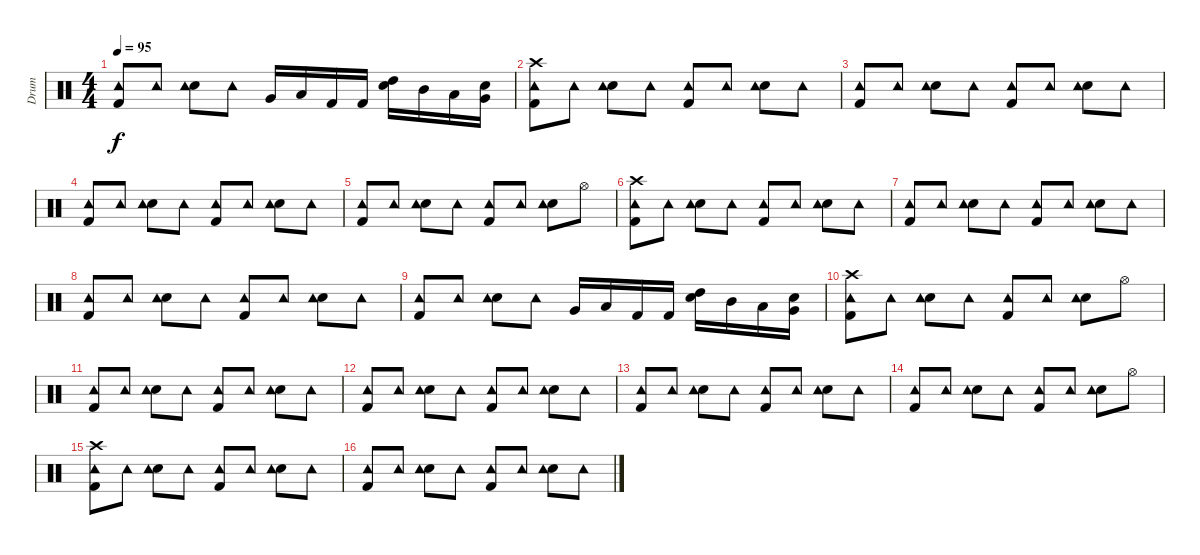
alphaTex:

\track ("Drum" "Drum") {instrument percussion}
\staff {score}
\articulation defaults
\ts (4 4)
\tempo 95
\clef neutral
\ks c
("Kick (hit) 2" "Tambourine (hit)").8{dy f} "Tambourine (hit)".8 ("Electric Snare (hit)" "Tambourine (hit)").8 "Tambourine (hit)".8 "Very Low Tom (hit)".16 "Low Floor Tom (hit)".16 "Kick (hit) 2".16 "Kick (hit) 2".16 ("High Tom (hit)" "Snare (hit) 2").16 "Mid Tom (hit)".16 "Low Tom (hit)".16 ("Very Low Tom (hit)" "Snare (hit) 2").16 |
("Kick (hit) 2" "Tambourine (hit)" "Crash high (hit)").8 "Tambourine (hit)".8 ("Electric Snare (hit)" "Tambourine (hit)").8 "Tambourine (hit)".8 ("Kick (hit) 2" "Tambourine (hit)").8 "Tambourine (hit)".8 ("Electric Snare (hit)" "Tambourine (hit)").8 "Tambourine (hit)".8 |
("Kick (hit) 2" "Tambourine (hit)").8 "Tambourine (hit)".8 ("Electric Snare (hit)" "Tambourine (hit)").8 "Tambourine (hit)".8 ("Kick (hit) 2" "Tambourine (hit)").8 "Tambourine (hit)".8 ("Electric Snare (hit)" "Tambourine (hit)").8 "Tambourine (hit)".8 |
("Kick (hit) 2" "Tambourine (hit)").8 "Tambourine (hit)".8 ("Electric Snare (hit)" "Tambourine (hit)").8 "Tambourine (hit)".8 ("Kick (hit) 2" "Tambourine (hit)").8 "Tambourine (hit)".8 ("Electric Snare (hit)" "Tambourine (hit)").8 "Tambourine (hit)".8 |
("Kick (hit) 2" "Tambourine (hit)").8 "Tambourine (hit)".8 ("Electric Snare (hit)" "Tambourine (hit)").8 "Tambourine (hit)".8 ("Kick (hit) 2" "Tambourine (hit)").8 "Tambourine (hit)".8 ("Electric Snare (hit)" "Tambourine (hit)").8 "Hi-Hat (open)".8 |
("Kick (hit) 2" "Tambourine (hit)" "Crash high (hit)").8 "Tambourine (hit)".8 ("Electric Snare (hit)" "Tambourine (hit)").8 "Tambourine (hit)".8 ("Kick (hit) 2" "Tambourine (hit)").8 "Tambourine (hit)".8 ("Electric Snare (hit)" "Tambourine (hit)").8 "Tambourine (hit)".8 |
("Kick (hit) 2" "Tambourine (hit)").8 "Tambourine (hit)".8 ("Electric Snare (hit)" "Tambourine (hit)").8 "Tambourine (hit)".8 ("Kick (hit) 2" "Tambourine (hit)").8 "Tambourine (hit)".8 ("Electric Snare (hit)" "Tambourine (hit)").8 "Tambourine (hit)".8 |
("Kick (hit) 2" "Tambourine (hit)").8 "Tambourine (hit)".8 ("Electric Snare (hit)" "Tambourine (hit)").8 "Tambourine (hit)".8 ("Kick (hit) 2" "Tambourine (hit)").8 "Tambourine (hit)".8 ("Electric Snare (hit)" "Tambourine (hit)").8 "Tambourine (hit)".8 |
("Kick (hit) 2" "Tambourine (hit)").8 "Tambourine (hit)".8 ("Electric Snare (hit)" "Tambourine (hit)").8 "Tambourine (hit)".8 "Very Low Tom (hit)".16 "Low Floor Tom (hit)".16 "Kick (hit) 2".16 "Kick (hit) 2".16 ("High Tom (hit)" "Snare (hit) 2").16 "Mid Tom (hit)".16 "Low Tom (hit)".16 ("Very Low Tom (hit)" "Snare (hit) 2").16 |
("Kick (hit) 2" "Tambourine (hit)" "Crash high (hit)").8 "Tambourine (hit)".8 ("Electric Snare (hit)" "Tambourine (hit)").8 "Tambourine (hit)".8 ("Kick (hit) 2" "Tambourine (hit)").8 "Tambourine (hit)".8 ("Electric Snare (hit)" "Tambourine (hit)").8 "Hi-Hat (open)".8 |
("Kick (hit) 2" "Tambourine (hit)").8 "Tambourine (hit)".8 ("Electric Snare (hit)" "Tambourine (hit)").8 "Tambourine (hit)".8 ("Kick (hit) 2" "Tambourine (hit)").8 "Tambourine (hit)".8 ("Electric Snare (hit)" "Tambourine (hit)").8 "Tambourine (hit)".8 |
("Kick (hit) 2" "Tambourine (hit)").8 "Tambourine (hit)".8 ("Electric Snare (hit)" "Tambourine (hit)").8 "Tambourine (hit)".8 ("Kick (hit) 2" "Tambourine (hit)").8 "Tambourine (hit)".8 ("Electric Snare (hit)" "Tambourine (hit)").8 "Tambourine (hit)".8 |
("Kick (hit) 2" "Tambourine (hit)").8 "Tambourine (hit)".8 ("Electric Snare (hit)" "Tambourine (hit)").8 "Tambourine (hit)".8 ("Kick (hit) 2" "Tambourine (hit)").8 "Tambourine (hit)".8 ("Electric Snare (hit)" "Tambourine (hit)").8 "Tambourine (hit)".8 |
("Kick (hit) 2" "Tambourine (hit)").8 "Tambourine (hit)".8 ("Electric Snare (hit)" "Tambourine (hit)").8 "Tambourine (hit)".8 ("Kick (hit) 2" "Tambourine (hit)").8 "Tambourine (hit)".8 ("Electric Snare (hit)" "Tambourine (hit)").8 "Hi-Hat (open)".8 |
("Kick (hit) 2" "Tambourine (hit)" "Crash high (hit)").8 "Tambourine (hit)".8 ("Electric Snare (hit)" "Tambourine (hit)").8 "Tambourine (hit)".8 ("Kick (hit) 2" "Tambourine (hit)").8 "Tambourine (hit)".8 ("Electric Snare (hit)" "Tambourine (hit)").8 "Tambourine (hit)".8 |
("Kick (hit) 2" "Tambourine (hit)").8 "Tambourine (hit)".8 ("Electric Snare (hit)" "Tambourine (hit)").8 "Tambourine (hit)".8 ("Kick (hit) 2" "Tambourine (hit)").8 "Tambourine (hit)".8 ("Electric Snare (hit)" "Tambourine (hit)").8 "Tambourine (hit)".8
